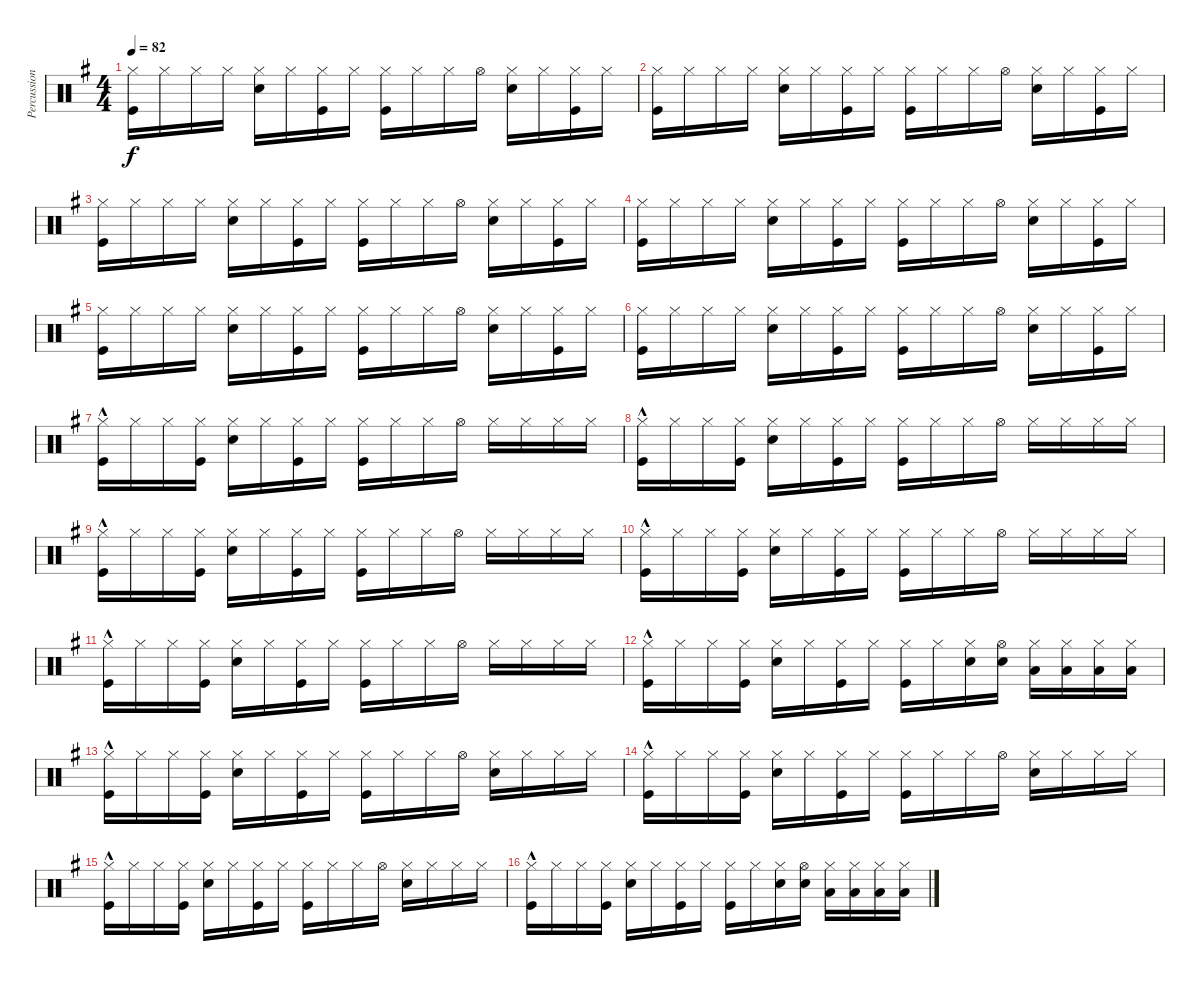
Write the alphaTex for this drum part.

\track ("Percussions" "Percussion") {instrument percussion}
\staff {score}
\articulation defaults
\ts (4 4)
\tempo 82
\clef neutral
\ks g
("Hi-Hat (closed)" "Kick (hit)").16{dy f} "Hi-Hat (closed)".16 "Hi-Hat (closed)".16 "Hi-Hat (closed)".16 ("Hi-Hat (closed)" "Hand Clap (hit)").16 "Hi-Hat (closed)".16 ("Hi-Hat (closed)" "Kick (hit)").16 "Hi-Hat (closed)".16 ("Hi-Hat (closed)" "Kick (hit)").16 "Hi-Hat (closed)".16 "Hi-Hat (closed)".16 "Hi-Hat (open)".16 ("Hi-Hat (closed)" "Hand Clap (hit)").16 "Hi-Hat (closed)".16 ("Hi-Hat (closed)" "Kick (hit)").16 "Hi-Hat (closed)".16 |
("Hi-Hat (closed)" "Kick (hit)").16 "Hi-Hat (closed)".16 "Hi-Hat (closed)".16 "Hi-Hat (closed)".16 ("Hi-Hat (closed)" "Hand Clap (hit)").16 "Hi-Hat (closed)".16 ("Hi-Hat (closed)" "Kick (hit)").16 "Hi-Hat (closed)".16 ("Hi-Hat (closed)" "Kick (hit)").16 "Hi-Hat (closed)".16 "Hi-Hat (closed)".16 "Hi-Hat (open)".16 ("Hi-Hat (closed)" "Hand Clap (hit)").16 "Hi-Hat (closed)".16 ("Hi-Hat (closed)" "Kick (hit)").16 "Hi-Hat (closed)".16 |
("Hi-Hat (closed)" "Kick (hit)").16 "Hi-Hat (closed)".16 "Hi-Hat (closed)".16 "Hi-Hat (closed)".16 ("Hi-Hat (closed)" "Hand Clap (hit)").16 "Hi-Hat (closed)".16 ("Hi-Hat (closed)" "Kick (hit)").16 "Hi-Hat (closed)".16 ("Hi-Hat (closed)" "Kick (hit)").16 "Hi-Hat (closed)".16 "Hi-Hat (closed)".16 "Hi-Hat (open)".16 ("Hi-Hat (closed)" "Hand Clap (hit)").16 "Hi-Hat (closed)".16 ("Hi-Hat (closed)" "Kick (hit)").16 "Hi-Hat (closed)".16 |
("Hi-Hat (closed)" "Kick (hit)").16 "Hi-Hat (closed)".16 "Hi-Hat (closed)".16 "Hi-Hat (closed)".16 ("Hi-Hat (closed)" "Hand Clap (hit)").16 "Hi-Hat (closed)".16 ("Hi-Hat (closed)" "Kick (hit)").16 "Hi-Hat (closed)".16 ("Hi-Hat (closed)" "Kick (hit)").16 "Hi-Hat (closed)".16 "Hi-Hat (closed)".16 "Hi-Hat (open)".16 ("Hi-Hat (closed)" "Hand Clap (hit)").16 "Hi-Hat (closed)".16 ("Hi-Hat (closed)" "Kick (hit)").16 "Hi-Hat (closed)".16 |
("Hi-Hat (closed)" "Kick (hit)").16 "Hi-Hat (closed)".16 "Hi-Hat (closed)".16 "Hi-Hat (closed)".16 ("Hi-Hat (closed)" "Hand Clap (hit)").16 "Hi-Hat (closed)".16 ("Hi-Hat (closed)" "Kick (hit)").16 "Hi-Hat (closed)".16 ("Hi-Hat (closed)" "Kick (hit)").16 "Hi-Hat (closed)".16 "Hi-Hat (closed)".16 "Hi-Hat (open)".16 ("Hi-Hat (closed)" "Hand Clap (hit)").16 "Hi-Hat (closed)".16 ("Hi-Hat (closed)" "Kick (hit)").16 "Hi-Hat (closed)".16 |
("Hi-Hat (closed)" "Kick (hit)").16 "Hi-Hat (closed)".16 "Hi-Hat (closed)".16 "Hi-Hat (closed)".16 ("Hi-Hat (closed)" "Hand Clap (hit)").16 "Hi-Hat (closed)".16 ("Hi-Hat (closed)" "Kick (hit)").16 "Hi-Hat (closed)".16 ("Hi-Hat (closed)" "Kick (hit)").16 "Hi-Hat (closed)".16 "Hi-Hat (closed)".16 "Hi-Hat (open)".16 ("Hi-Hat (closed)" "Hand Clap (hit)").16 "Hi-Hat (closed)".16 ("Hi-Hat (closed)" "Kick (hit)").16 "Hi-Hat (closed)".16 |
("Hi-Hat (closed)" "Kick (hit)"{hac}).16 "Hi-Hat (closed)".16 "Hi-Hat (closed)".16 ("Hi-Hat (closed)" "Kick (hit)").16 ("Hi-Hat (closed)" "Hand Clap (hit)").16 "Hi-Hat (closed)".16 ("Hi-Hat (closed)" "Kick (hit)").16 "Hi-Hat (closed)".16 ("Hi-Hat (closed)" "Kick (hit)").16 "Hi-Hat (closed)".16 "Hi-Hat (closed)".16 "Hi-Hat (open)".16 "Hi-Hat (closed)".16 "Hi-Hat (closed)".16 "Hi-Hat (closed)".16 "Hi-Hat (closed)".16 |
("Hi-Hat (closed)" "Kick (hit)"{hac}).16 "Hi-Hat (closed)".16 "Hi-Hat (closed)".16 ("Hi-Hat (closed)" "Kick (hit)").16 ("Hi-Hat (closed)" "Hand Clap (hit)").16 "Hi-Hat (closed)".16 ("Hi-Hat (closed)" "Kick (hit)").16 "Hi-Hat (closed)".16 ("Hi-Hat (closed)" "Kick (hit)").16 "Hi-Hat (closed)".16 "Hi-Hat (closed)".16 "Hi-Hat (open)".16 "Hi-Hat (closed)".16 "Hi-Hat (closed)".16 "Hi-Hat (closed)".16 "Hi-Hat (closed)".16 |
("Hi-Hat (closed)" "Kick (hit)"{hac}).16 "Hi-Hat (closed)".16 "Hi-Hat (closed)".16 ("Hi-Hat (closed)" "Kick (hit)").16 ("Hi-Hat (closed)" "Hand Clap (hit)").16 "Hi-Hat (closed)".16 ("Hi-Hat (closed)" "Kick (hit)").16 "Hi-Hat (closed)".16 ("Hi-Hat (closed)" "Kick (hit)").16 "Hi-Hat (closed)".16 "Hi-Hat (closed)".16 "Hi-Hat (open)".16 "Hi-Hat (closed)".16 "Hi-Hat (closed)".16 "Hi-Hat (closed)".16 "Hi-Hat (closed)".16 |
("Hi-Hat (closed)" "Kick (hit)"{hac}).16 "Hi-Hat (closed)".16 "Hi-Hat (closed)".16 ("Hi-Hat (closed)" "Kick (hit)").16 ("Hi-Hat (closed)" "Hand Clap (hit)").16 "Hi-Hat (closed)".16 ("Hi-Hat (closed)" "Kick (hit)").16 "Hi-Hat (closed)".16 ("Hi-Hat (closed)" "Kick (hit)").16 "Hi-Hat (closed)".16 "Hi-Hat (closed)".16 "Hi-Hat (open)".16 "Hi-Hat (closed)".16 "Hi-Hat (closed)".16 "Hi-Hat (closed)".16 "Hi-Hat (closed)".16 |
("Hi-Hat (closed)" "Kick (hit)"{hac}).16 "Hi-Hat (closed)".16 "Hi-Hat (closed)".16 ("Hi-Hat (closed)" "Kick (hit)").16 ("Hi-Hat (closed)" "Hand Clap (hit)").16 "Hi-Hat (closed)".16 ("Hi-Hat (closed)" "Kick (hit)").16 "Hi-Hat (closed)".16 ("Hi-Hat (closed)" "Kick (hit)").16 "Hi-Hat (closed)".16 "Hi-Hat (closed)".16 "Hi-Hat (open)".16 "Hi-Hat (closed)".16 "Hi-Hat (closed)".16 "Hi-Hat (closed)".16 "Hi-Hat (closed)".16 |
("Hi-Hat (closed)" "Kick (hit)"{hac}).16 "Hi-Hat (closed)".16 "Hi-Hat (closed)".16 ("Hi-Hat (closed)" "Kick (hit)").16 ("Hi-Hat (closed)" "Hand Clap (hit)").16 "Hi-Hat (closed)".16 ("Hi-Hat (closed)" "Kick (hit)").16 "Hi-Hat (closed)".16 ("Hi-Hat (closed)" "Kick (hit)").16 "Hi-Hat (closed)".16 ("Hi-Hat (closed)" "Electric Snare (hit)").16 ("Hi-Hat (open)" "Electric Snare (hit)").16 ("Hi-Hat (closed)" "Low Tom (hit)").16 ("Hi-Hat (closed)" "Low Tom (hit)").16 ("Hi-Hat (closed)" "Low Floor Tom (hit)").16 ("Hi-Hat (closed)" "Low Floor Tom (hit)").16 |
("Hi-Hat (closed)" "Kick (hit)"{hac}).16 "Hi-Hat (closed)".16 "Hi-Hat (closed)".16 ("Hi-Hat (closed)" "Kick (hit)").16 ("Hi-Hat (closed)" "Snare (hit) 2").16 "Hi-Hat (closed)".16 ("Hi-Hat (closed)" "Kick (hit)").16 "Hi-Hat (closed)".16 ("Hi-Hat (closed)" "Kick (hit)").16 "Hi-Hat (closed)".16 "Hi-Hat (closed)".16 "Hi-Hat (open)".16 ("Hi-Hat (closed)" "Snare (hit) 2").16 "Hi-Hat (closed)".16 "Hi-Hat (closed)".16 "Hi-Hat (closed)".16 |
("Hi-Hat (closed)" "Kick (hit)"{hac}).16 "Hi-Hat (closed)".16 "Hi-Hat (closed)".16 ("Hi-Hat (closed)" "Kick (hit)").16 ("Hi-Hat (closed)" "Snare (hit) 2").16 "Hi-Hat (closed)".16 ("Hi-Hat (closed)" "Kick (hit)").16 "Hi-Hat (closed)".16 ("Hi-Hat (closed)" "Kick (hit)").16 "Hi-Hat (closed)".16 "Hi-Hat (closed)".16 "Hi-Hat (open)".16 ("Hi-Hat (closed)" "Snare (hit) 2").16 "Hi-Hat (closed)".16 "Hi-Hat (closed)".16 "Hi-Hat (closed)".16 |
("Hi-Hat (closed)" "Kick (hit)"{hac}).16 "Hi-Hat (closed)".16 "Hi-Hat (closed)".16 ("Hi-Hat (closed)" "Kick (hit)").16 ("Hi-Hat (closed)" "Snare (hit) 2").16 "Hi-Hat (closed)".16 ("Hi-Hat (closed)" "Kick (hit)").16 "Hi-Hat (closed)".16 ("Hi-Hat (closed)" "Kick (hit)").16 "Hi-Hat (closed)".16 "Hi-Hat (closed)".16 "Hi-Hat (open)".16 ("Hi-Hat (closed)" "Snare (hit) 2").16 "Hi-Hat (closed)".16 "Hi-Hat (closed)".16 "Hi-Hat (closed)".16 |
("Hi-Hat (closed)" "Kick (hit)"{hac}).16 "Hi-Hat (closed)".16 "Hi-Hat (closed)".16 ("Hi-Hat (closed)" "Kick (hit)").16 ("Hi-Hat (closed)" "Snare (hit) 2").16 "Hi-Hat (closed)".16 ("Hi-Hat (closed)" "Kick (hit)").16 "Hi-Hat (closed)".16 ("Hi-Hat (closed)" "Kick (hit)").16 "Hi-Hat (closed)".16 ("Hi-Hat (closed)" "Snare (hit) 2").16 ("Hi-Hat (open)" "Snare (hit) 2").16 ("Hi-Hat (closed)" "Low Tom (hit)").16 ("Hi-Hat (closed)" "Low Tom (hit)").16 ("Hi-Hat (closed)" "Low Floor Tom (hit)").16 ("Hi-Hat (closed)" "Low Floor Tom (hit)").16
